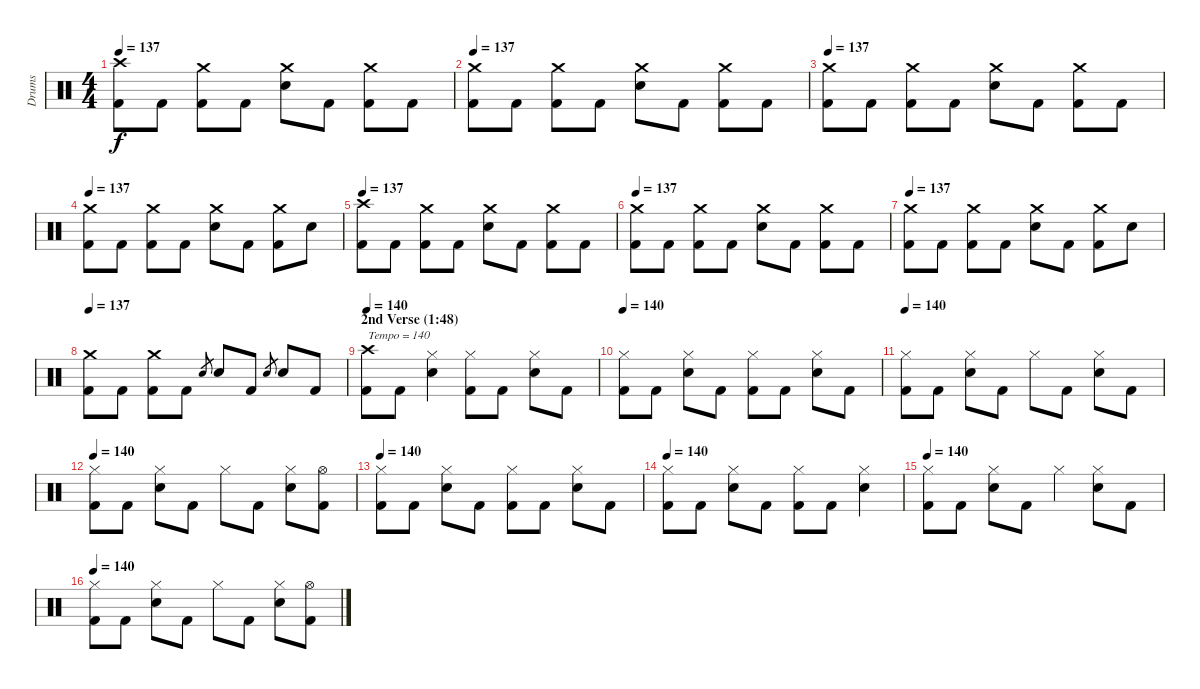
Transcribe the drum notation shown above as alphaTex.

\track ("Drums" "Drums") {instrument percussion}
\staff {score}
\articulation defaults
\ts (4 4)
\tempo 137
\clef neutral
\ks c
("Crash high (hit)" "Kick (hit) 2").8{dy f} "Kick (hit) 2".8 ("Crash medium (hit)" "Kick (hit) 2").8 "Kick (hit) 2".8 ("Crash medium (hit)" "Snare (hit) 2").8 "Kick (hit) 2".8 ("Crash medium (hit)" "Kick (hit) 2").8 "Kick (hit) 2".8 |
\tempo 137
("Crash medium (hit)" "Kick (hit) 2").8 "Kick (hit) 2".8 ("Crash medium (hit)" "Kick (hit) 2").8 "Kick (hit) 2".8 ("Crash medium (hit)" "Snare (hit) 2").8 "Kick (hit) 2".8 ("Crash medium (hit)" "Kick (hit) 2").8 "Kick (hit) 2".8 |
\tempo 137
("Crash medium (hit)" "Kick (hit) 2").8 "Kick (hit) 2".8 ("Crash medium (hit)" "Kick (hit) 2").8 "Kick (hit) 2".8 ("Crash medium (hit)" "Snare (hit) 2").8 "Kick (hit) 2".8 ("Crash medium (hit)" "Kick (hit) 2").8 "Kick (hit) 2".8 |
\tempo 137
("Crash medium (hit)" "Kick (hit) 2").8 "Kick (hit) 2".8 ("Crash medium (hit)" "Kick (hit) 2").8 "Kick (hit) 2".8 ("Crash medium (hit)" "Snare (hit) 2").8 "Kick (hit) 2".8 ("Crash medium (hit)" "Kick (hit) 2").8 "Snare (hit) 2".8 |
\tempo 137
("Crash high (hit)" "Kick (hit) 2").8 "Kick (hit) 2".8 ("Crash medium (hit)" "Kick (hit) 2").8 "Kick (hit) 2".8 ("Crash medium (hit)" "Snare (hit) 2").8 "Kick (hit) 2".8 ("Crash medium (hit)" "Kick (hit) 2").8 "Kick (hit) 2".8 |
\tempo 137
("Crash medium (hit)" "Kick (hit) 2").8 "Kick (hit) 2".8 ("Crash medium (hit)" "Kick (hit) 2").8 "Kick (hit) 2".8 ("Crash medium (hit)" "Snare (hit) 2").8 "Kick (hit) 2".8 ("Crash medium (hit)" "Kick (hit) 2").8 "Kick (hit) 2".8 |
\tempo 137
("Crash medium (hit)" "Kick (hit) 2").8 "Kick (hit) 2".8 ("Crash medium (hit)" "Kick (hit) 2").8 "Kick (hit) 2".8 ("Crash medium (hit)" "Snare (hit) 2").8 "Kick (hit) 2".8 ("Crash medium (hit)" "Kick (hit) 2").8 "Snare (hit) 2".8 |
\tempo 137
("Crash medium (hit)" "Kick (hit) 2").8 "Kick (hit) 2".8 ("Crash medium (hit)" "Kick (hit) 2").8 "Kick (hit) 2".8 "Snare (hit) 2".8{gr} "Snare (hit) 2".8 "Kick (hit) 2".8 "Snare (hit) 2".8{gr} "Snare (hit) 2".8 "Kick (hit) 2".8 |
\section ("" "2nd Verse (1:48)")
\tempo 140
("Crash high (hit)" "Kick (hit) 2").8{txt "Tempo = 140"} "Kick (hit) 2".8 ("Hi-Hat (closed)" "Snare (hit) 2").4 ("Hi-Hat (closed)" "Kick (hit) 2").8 "Kick (hit) 2".8 ("Hi-Hat (closed)" "Snare (hit) 2").8 "Kick (hit) 2".8 |
\tempo 140
("Hi-Hat (closed)" "Kick (hit) 2").8 "Kick (hit) 2".8 ("Hi-Hat (closed)" "Snare (hit) 2").8 "Kick (hit) 2".8 ("Hi-Hat (closed)" "Kick (hit) 2").8 "Kick (hit) 2".8 ("Hi-Hat (closed)" "Snare (hit) 2").8 "Kick (hit) 2".8 |
\tempo 140
("Hi-Hat (closed)" "Kick (hit) 2").8 "Kick (hit) 2".8 ("Hi-Hat (closed)" "Snare (hit) 2").8 "Kick (hit) 2".8 "Hi-Hat (closed)".8 "Kick (hit) 2".8 ("Hi-Hat (closed)" "Snare (hit) 2").8 "Kick (hit) 2".8 |
\tempo 140
("Hi-Hat (closed)" "Kick (hit) 2").8 "Kick (hit) 2".8 ("Hi-Hat (closed)" "Snare (hit) 2").8 "Kick (hit) 2".8 "Hi-Hat (closed)".8 "Kick (hit) 2".8 ("Hi-Hat (closed)" "Snare (hit) 2").8 ("Hi-Hat (open)" "Kick (hit) 2").8 |
\tempo 140
("Hi-Hat (closed)" "Kick (hit) 2").8 "Kick (hit) 2".8 ("Hi-Hat (closed)" "Snare (hit) 2").8 "Kick (hit) 2".8 ("Hi-Hat (closed)" "Kick (hit) 2").8 "Kick (hit) 2".8 ("Hi-Hat (closed)" "Snare (hit) 2").8 "Kick (hit) 2".8 |
\tempo 140
("Hi-Hat (closed)" "Kick (hit) 2").8 "Kick (hit) 2".8 ("Hi-Hat (closed)" "Snare (hit) 2").8 "Kick (hit) 2".8 ("Hi-Hat (closed)" "Kick (hit) 2").8 "Kick (hit) 2".8 ("Hi-Hat (closed)" "Snare (hit) 2").4 |
\tempo 140
("Hi-Hat (closed)" "Kick (hit) 2").8 "Kick (hit) 2".8 ("Hi-Hat (closed)" "Snare (hit) 2").8 "Kick (hit) 2".8 "Hi-Hat (closed)".4 ("Hi-Hat (closed)" "Snare (hit) 2").8 "Kick (hit) 2".8 |
\tempo 140
("Hi-Hat (closed)" "Kick (hit) 2").8 "Kick (hit) 2".8 ("Hi-Hat (closed)" "Snare (hit) 2").8 "Kick (hit) 2".8 "Hi-Hat (closed)".8 "Kick (hit) 2".8 ("Hi-Hat (closed)" "Snare (hit) 2").8 ("Hi-Hat (open)" "Kick (hit) 2").8
